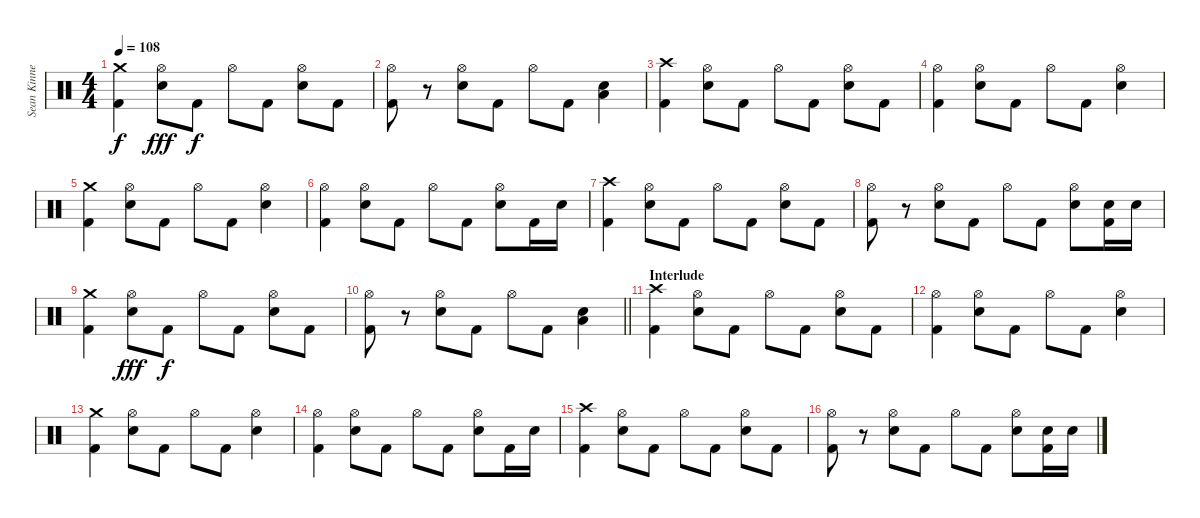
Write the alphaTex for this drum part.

\track ("Sean Kinney" "Sean Kinne") {instrument percussion}
\staff {score}
\articulation defaults
\ts (4 4)
\tempo 108
\clef neutral
\ks c
("Crash medium (hit)" "Kick (hit) 2").4{dy f} ("Hi-Hat (open)" "Snare (hit) 2").8{dy fff} "Kick (hit) 2".8{dy f} "Hi-Hat (open)".8 "Kick (hit) 2".8 ("Hi-Hat (open)" "Snare (hit) 2").8 "Kick (hit) 2".8 |
("Hi-Hat (open)" "Kick (hit) 2").8 r.8 ("Hi-Hat (open)" "Snare (hit) 2").8 "Kick (hit) 2".8 "Hi-Hat (open)".8 "Kick (hit) 2".8 ("Low Tom (hit)" "Snare (hit) 2").4 |
("Crash high (hit)" "Kick (hit) 2").4 ("Hi-Hat (open)" "Snare (hit) 2").8 "Kick (hit) 2".8 "Hi-Hat (open)".8 "Kick (hit) 2".8 ("Hi-Hat (open)" "Snare (hit) 2").8 "Kick (hit) 2".8 |
("Hi-Hat (open)" "Kick (hit) 2").4 ("Hi-Hat (open)" "Snare (hit) 2").8 "Kick (hit) 2".8 "Hi-Hat (open)".8 "Kick (hit) 2".8 ("Hi-Hat (open)" "Snare (hit) 2").4 |
("Crash medium (hit)" "Kick (hit) 2").4 ("Hi-Hat (open)" "Snare (hit) 2").8 "Kick (hit) 2".8 "Hi-Hat (open)".8 "Kick (hit) 2".8 ("Hi-Hat (open)" "Snare (hit) 2").4 |
("Hi-Hat (open)" "Kick (hit) 2").4 ("Hi-Hat (open)" "Snare (hit) 2").8 "Kick (hit) 2".8 "Hi-Hat (open)".8 "Kick (hit) 2".8 ("Hi-Hat (open)" "Snare (hit) 2").8 "Kick (hit) 2".16 "Snare (hit) 2".16 |
("Crash high (hit)" "Kick (hit) 2").4 ("Hi-Hat (open)" "Snare (hit) 2").8 "Kick (hit) 2".8 "Hi-Hat (open)".8 "Kick (hit) 2".8 ("Hi-Hat (open)" "Snare (hit) 2").8 "Kick (hit) 2".8 |
("Hi-Hat (open)" "Kick (hit) 2").8 r.8 ("Hi-Hat (open)" "Snare (hit) 2").8 "Kick (hit) 2".8 "Hi-Hat (open)".8 "Kick (hit) 2".8 ("Hi-Hat (open)" "Snare (hit) 2").8 ("Snare (hit) 2" "Kick (hit) 2").16 "Snare (hit) 2".16 |
("Crash medium (hit)" "Kick (hit) 2").4 ("Hi-Hat (open)" "Snare (hit) 2").8{dy fff} "Kick (hit) 2".8{dy f} "Hi-Hat (open)".8 "Kick (hit) 2".8 ("Hi-Hat (open)" "Snare (hit) 2").8 "Kick (hit) 2".8 |
\barLineRight lightlight
("Hi-Hat (open)" "Kick (hit) 2").8 r.8 ("Hi-Hat (open)" "Snare (hit) 2").8 "Kick (hit) 2".8 "Hi-Hat (open)".8 "Kick (hit) 2".8 ("Low Tom (hit)" "Snare (hit) 2").4 |
\section ("" "Interlude")
("Crash high (hit)" "Kick (hit) 2").4 ("Hi-Hat (open)" "Snare (hit) 2").8 "Kick (hit) 2".8 "Hi-Hat (open)".8 "Kick (hit) 2".8 ("Hi-Hat (open)" "Snare (hit) 2").8 "Kick (hit) 2".8 |
("Hi-Hat (open)" "Kick (hit) 2").4 ("Hi-Hat (open)" "Snare (hit) 2").8 "Kick (hit) 2".8 "Hi-Hat (open)".8 "Kick (hit) 2".8 ("Hi-Hat (open)" "Snare (hit) 2").4 |
("Crash medium (hit)" "Kick (hit) 2").4 ("Hi-Hat (open)" "Snare (hit) 2").8 "Kick (hit) 2".8 "Hi-Hat (open)".8 "Kick (hit) 2".8 ("Hi-Hat (open)" "Snare (hit) 2").4 |
("Hi-Hat (open)" "Kick (hit) 2").4 ("Hi-Hat (open)" "Snare (hit) 2").8 "Kick (hit) 2".8 "Hi-Hat (open)".8 "Kick (hit) 2".8 ("Hi-Hat (open)" "Snare (hit) 2").8 "Kick (hit) 2".16 "Snare (hit) 2".16 |
("Crash high (hit)" "Kick (hit) 2").4 ("Hi-Hat (open)" "Snare (hit) 2").8 "Kick (hit) 2".8 "Hi-Hat (open)".8 "Kick (hit) 2".8 ("Hi-Hat (open)" "Snare (hit) 2").8 "Kick (hit) 2".8 |
("Hi-Hat (open)" "Kick (hit) 2").8 r.8 ("Hi-Hat (open)" "Snare (hit) 2").8 "Kick (hit) 2".8 "Hi-Hat (open)".8 "Kick (hit) 2".8 ("Hi-Hat (open)" "Snare (hit) 2").8 ("Snare (hit) 2" "Kick (hit) 2").16 "Snare (hit) 2".16
